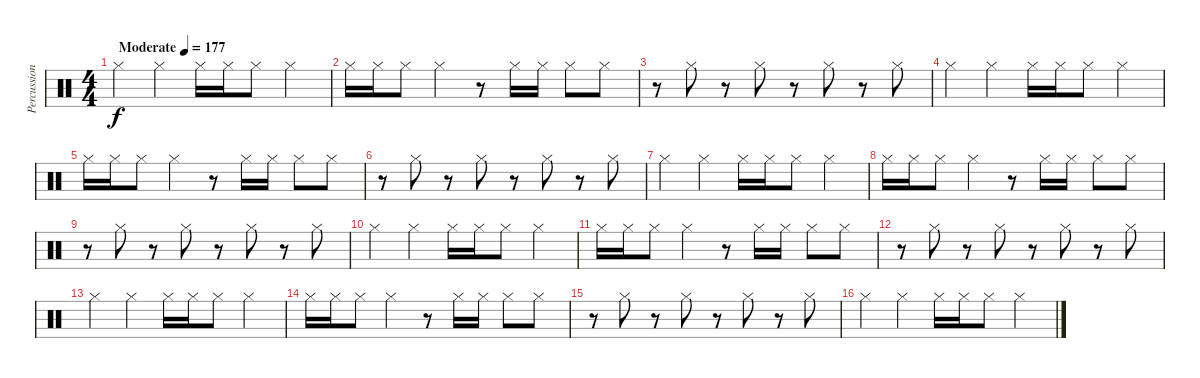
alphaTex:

\track ("Percussion" "Percussion") {instrument percussion}
\staff {score}
\articulation defaults
\ts (4 4)
\tempo (177 "Moderate")
\clef neutral
\ks c "Hi-Hat (closed)".4{dy f} "Hi-Hat (closed)".4 "Hi-Hat (closed)".16 "Hi-Hat (closed)".16 "Hi-Hat (closed)".8 "Hi-Hat (closed)".4
|
"Hi-Hat (closed)".16 "Hi-Hat (closed)".16 "Hi-Hat (closed)".8 "Hi-Hat (closed)".4 r.8 "Hi-Hat (closed)".16 "Hi-Hat (closed)".16 "Hi-Hat (closed)".8 "Hi-Hat (closed)".8 |
r.8 "Hi-Hat (closed)".8 r.8 "Hi-Hat (closed)".8 r.8 "Hi-Hat (closed)".8 r.8 "Hi-Hat (closed)".8 |
"Hi-Hat (closed)".4 "Hi-Hat (closed)".4 "Hi-Hat (closed)".16 "Hi-Hat (closed)".16 "Hi-Hat (closed)".8 "Hi-Hat (closed)".4 |
"Hi-Hat (closed)".16 "Hi-Hat (closed)".16 "Hi-Hat (closed)".8 "Hi-Hat (closed)".4 r.8 "Hi-Hat (closed)".16 "Hi-Hat (closed)".16 "Hi-Hat (closed)".8 "Hi-Hat (closed)".8 |
r.8 "Hi-Hat (closed)".8 r.8 "Hi-Hat (closed)".8 r.8 "Hi-Hat (closed)".8 r.8 "Hi-Hat (closed)".8 |
"Hi-Hat (closed)".4 "Hi-Hat (closed)".4 "Hi-Hat (closed)".16 "Hi-Hat (closed)".16 "Hi-Hat (closed)".8 "Hi-Hat (closed)".4 |
"Hi-Hat (closed)".16 "Hi-Hat (closed)".16 "Hi-Hat (closed)".8 "Hi-Hat (closed)".4 r.8 "Hi-Hat (closed)".16 "Hi-Hat (closed)".16 "Hi-Hat (closed)".8 "Hi-Hat (closed)".8 |
r.8 "Hi-Hat (closed)".8 r.8 "Hi-Hat (closed)".8 r.8 "Hi-Hat (closed)".8 r.8 "Hi-Hat (closed)".8 |
"Hi-Hat (closed)".4 "Hi-Hat (closed)".4 "Hi-Hat (closed)".16 "Hi-Hat (closed)".16 "Hi-Hat (closed)".8 "Hi-Hat (closed)".4 |
"Hi-Hat (closed)".16 "Hi-Hat (closed)".16 "Hi-Hat (closed)".8 "Hi-Hat (closed)".4 r.8 "Hi-Hat (closed)".16 "Hi-Hat (closed)".16 "Hi-Hat (closed)".8 "Hi-Hat (closed)".8 |
r.8 "Hi-Hat (closed)".8 r.8 "Hi-Hat (closed)".8 r.8 "Hi-Hat (closed)".8 r.8 "Hi-Hat (closed)".8 |
"Hi-Hat (closed)".4 "Hi-Hat (closed)".4 "Hi-Hat (closed)".16 "Hi-Hat (closed)".16 "Hi-Hat (closed)".8 "Hi-Hat (closed)".4 |
"Hi-Hat (closed)".16 "Hi-Hat (closed)".16 "Hi-Hat (closed)".8 "Hi-Hat (closed)".4 r.8 "Hi-Hat (closed)".16 "Hi-Hat (closed)".16 "Hi-Hat (closed)".8 "Hi-Hat (closed)".8 |
r.8 "Hi-Hat (closed)".8 r.8 "Hi-Hat (closed)".8 r.8 "Hi-Hat (closed)".8 r.8 "Hi-Hat (closed)".8 |
"Hi-Hat (closed)".4 "Hi-Hat (closed)".4 "Hi-Hat (closed)".16 "Hi-Hat (closed)".16 "Hi-Hat (closed)".8 "Hi-Hat (closed)".4
